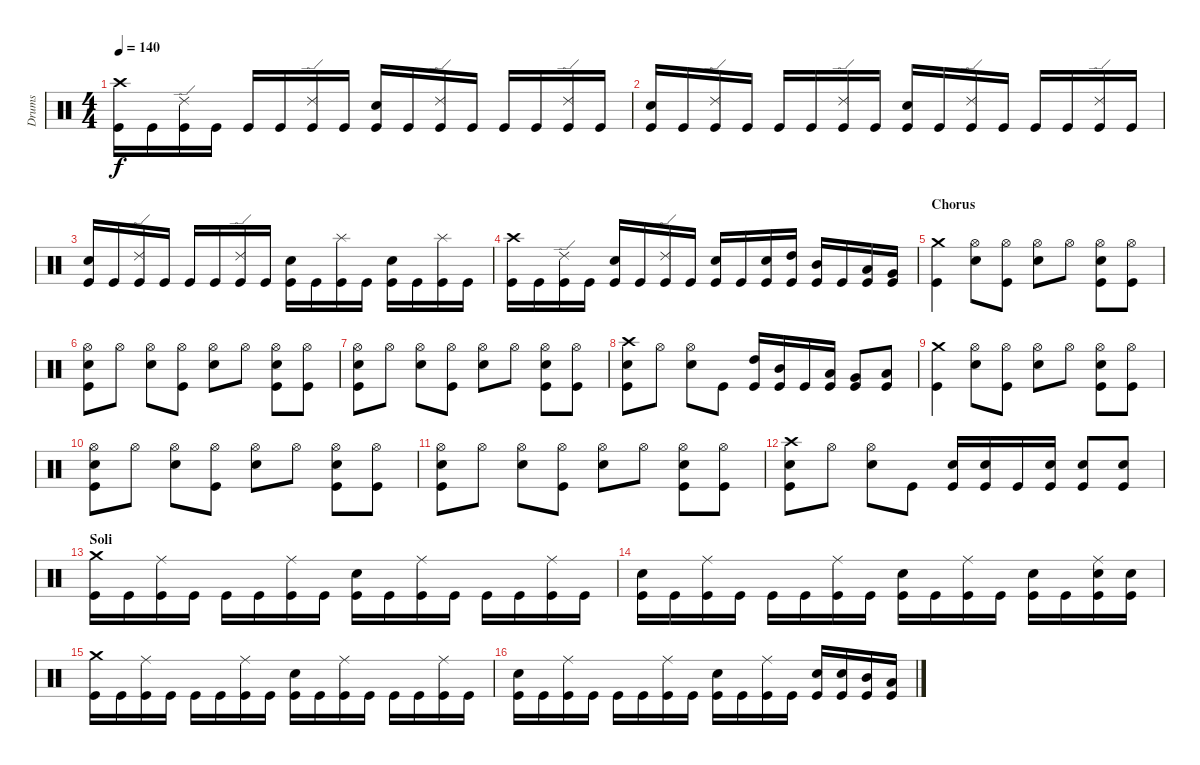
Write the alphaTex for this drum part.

\track ("Drums" "Drums") {instrument percussion}
\staff {score}
\articulation defaults
\ts (4 4)
\tempo 140
\clef neutral
\ks c
("Crash high (hit)" "Kick (hit)").16{dy f} "Kick (hit)".16 ("Ride (edge) 2" "Kick (hit)").16 "Kick (hit)".16 "Kick (hit)".16 "Kick (hit)".16 ("Ride (edge) 2" "Kick (hit)").16 "Kick (hit)".16 ("Snare (hit) 2" "Kick (hit)").16 "Kick (hit)".16 ("Ride (edge) 2" "Kick (hit)").16 "Kick (hit)".16 "Kick (hit)".16 "Kick (hit)".16 ("Ride (edge) 2" "Kick (hit)").16 "Kick (hit)".16 |
("Snare (hit) 2" "Kick (hit)").16 "Kick (hit)".16 ("Ride (edge) 2" "Kick (hit)").16 "Kick (hit)".16 "Kick (hit)".16 "Kick (hit)".16 ("Ride (edge) 2" "Kick (hit)").16 "Kick (hit)".16 ("Snare (hit) 2" "Kick (hit)").16 "Kick (hit)".16 ("Ride (edge) 2" "Kick (hit)").16 "Kick (hit)".16 "Kick (hit)".16 "Kick (hit)".16 ("Ride (edge) 2" "Kick (hit)").16 "Kick (hit)".16 |
("Snare (hit) 2" "Kick (hit)").16 "Kick (hit)".16 ("Ride (edge) 2" "Kick (hit)").16 "Kick (hit)".16 "Kick (hit)".16 "Kick (hit)".16 ("Ride (edge) 2" "Kick (hit)").16 "Kick (hit)".16 ("Snare (hit) 2" "Kick (hit)").16 "Kick (hit)".16 ("Splash (hit)" "Kick (hit)").16 "Kick (hit)".16 ("Snare (hit) 2" "Kick (hit)").16 "Kick (hit)".16 ("Splash (hit)" "Kick (hit)").16 "Kick (hit)".16 |
("Crash high (hit)" "Kick (hit)").16 "Kick (hit)".16 ("Ride (edge) 2" "Kick (hit)").16 "Kick (hit)".16 ("Snare (hit) 2" "Kick (hit)").16 "Kick (hit)".16 ("Ride (edge) 2" "Kick (hit)").16 "Kick (hit)".16 ("Snare (hit) 2" "Kick (hit)").16 "Kick (hit)".16 ("Snare (hit) 2" "Kick (hit)").16 ("High Tom (hit)" "Kick (hit)").16 ("Mid Tom (hit)" "Kick (hit)").16 "Kick (hit)".16 ("Low Tom (hit)" "Kick (hit)").16 ("Very Low Tom (hit)" "Kick (hit)").16 |
\section ("" "Chorus")
("Crash medium (hit)" "Kick (hit)").4 ("Hi-Hat (open)" "Electric Snare (hit)").8 ("Hi-Hat (open)" "Kick (hit)").8 ("Hi-Hat (open)" "Electric Snare (hit)").8 "Hi-Hat (open)".8 ("Hi-Hat (open)" "Electric Snare (hit)" "Kick (hit)").8 ("Hi-Hat (open)" "Kick (hit)").8 |
("Hi-Hat (open)" "Electric Snare (hit)" "Kick (hit)").8 "Hi-Hat (open)".8 ("Hi-Hat (open)" "Electric Snare (hit)").8 ("Hi-Hat (open)" "Kick (hit)").8 ("Hi-Hat (open)" "Electric Snare (hit)").8 "Hi-Hat (open)".8 ("Hi-Hat (open)" "Electric Snare (hit)" "Kick (hit)").8 ("Hi-Hat (open)" "Kick (hit)").8 |
("Hi-Hat (open)" "Electric Snare (hit)" "Kick (hit)").8 "Hi-Hat (open)".8 ("Hi-Hat (open)" "Electric Snare (hit)").8 ("Hi-Hat (open)" "Kick (hit)").8 ("Hi-Hat (open)" "Electric Snare (hit)").8 "Hi-Hat (open)".8 ("Hi-Hat (open)" "Electric Snare (hit)" "Kick (hit)").8 ("Hi-Hat (open)" "Kick (hit)").8 |
("Crash high (hit)" "Electric Snare (hit)" "Kick (hit)").8 "Hi-Hat (open)".8 ("Hi-Hat (open)" "Electric Snare (hit)").8 "Kick (hit)".8 ("High Tom (hit)" "Kick (hit)").16 ("Mid Tom (hit)" "Kick (hit)").16 "Kick (hit)".16 ("Low Tom (hit)" "Kick (hit)").16 ("Very Low Tom (hit)" "Kick (hit)").8 ("Low Floor Tom (hit)" "Kick (hit)").8 |
("Crash medium (hit)" "Kick (hit)").4 ("Hi-Hat (open)" "Electric Snare (hit)").8 ("Hi-Hat (open)" "Kick (hit)").8 ("Hi-Hat (open)" "Electric Snare (hit)").8 "Hi-Hat (open)".8 ("Hi-Hat (open)" "Electric Snare (hit)" "Kick (hit)").8 ("Hi-Hat (open)" "Kick (hit)").8 |
("Hi-Hat (open)" "Electric Snare (hit)" "Kick (hit)").8 "Hi-Hat (open)".8 ("Hi-Hat (open)" "Electric Snare (hit)").8 ("Hi-Hat (open)" "Kick (hit)").8 ("Hi-Hat (open)" "Electric Snare (hit)").8 "Hi-Hat (open)".8 ("Hi-Hat (open)" "Electric Snare (hit)" "Kick (hit)").8 ("Hi-Hat (open)" "Kick (hit)").8 |
("Hi-Hat (open)" "Electric Snare (hit)" "Kick (hit)").8 "Hi-Hat (open)".8 ("Hi-Hat (open)" "Electric Snare (hit)").8 ("Hi-Hat (open)" "Kick (hit)").8 ("Hi-Hat (open)" "Electric Snare (hit)").8 "Hi-Hat (open)".8 ("Hi-Hat (open)" "Electric Snare (hit)" "Kick (hit)").8 ("Hi-Hat (open)" "Kick (hit)").8 |
("Crash high (hit)" "Electric Snare (hit)" "Kick (hit)").8 "Hi-Hat (open)".8 ("Hi-Hat (open)" "Electric Snare (hit)").8 "Kick (hit)".8 ("Electric Snare (hit)" "Kick (hit)").16 ("Electric Snare (hit)" "Kick (hit)").16 "Kick (hit)".16 ("Electric Snare (hit)" "Kick (hit)").16 ("Electric Snare (hit)" "Kick (hit)").8 ("Electric Snare (hit)" "Kick (hit)").8 |
\section ("" "Soli")
("Crash medium (hit)" "Kick (hit)").16 "Kick (hit)".16 ("Ride (middle)" "Kick (hit)").16 "Kick (hit)".16 "Kick (hit)".16 "Kick (hit)".16 ("Ride (middle)" "Kick (hit)").16 "Kick (hit)".16 ("Snare (hit) 2" "Kick (hit)").16 "Kick (hit)".16 ("Ride (middle)" "Kick (hit)").16 "Kick (hit)".16 "Kick (hit)".16 "Kick (hit)".16 ("Ride (middle)" "Kick (hit)").16 "Kick (hit)".16 |
("Snare (hit) 2" "Kick (hit)").16 "Kick (hit)".16 ("Ride (middle)" "Kick (hit)").16 "Kick (hit)".16 "Kick (hit)".16 "Kick (hit)".16 ("Ride (middle)" "Kick (hit)").16 "Kick (hit)".16 ("Snare (hit) 2" "Kick (hit)").16 "Kick (hit)".16 ("Ride (middle)" "Kick (hit)").16 "Kick (hit)".16 ("Snare (hit) 2" "Kick (hit)").16 "Kick (hit)".16 ("Ride (middle)" "Snare (hit) 2" "Kick (hit)").16 ("Snare (hit) 2" "Kick (hit)").16 |
("Crash medium (hit)" "Kick (hit)").16 "Kick (hit)".16 ("Ride (middle)" "Kick (hit)").16 "Kick (hit)".16 "Kick (hit)".16 "Kick (hit)".16 ("Ride (middle)" "Kick (hit)").16 "Kick (hit)".16 ("Snare (hit) 2" "Kick (hit)").16 "Kick (hit)".16 ("Ride (middle)" "Kick (hit)").16 "Kick (hit)".16 "Kick (hit)".16 "Kick (hit)".16 ("Ride (middle)" "Kick (hit)").16 "Kick (hit)".16 |
("Snare (hit) 2" "Kick (hit)").16 "Kick (hit)".16 ("Ride (middle)" "Kick (hit)").16 "Kick (hit)".16 "Kick (hit)".16 "Kick (hit)".16 ("Ride (middle)" "Kick (hit)").16 "Kick (hit)".16 ("Snare (hit) 2" "Kick (hit)").16 "Kick (hit)".16 ("Ride (middle)" "Kick (hit)").16 "Kick (hit)".16 ("Snare (hit) 2" "Kick (hit)").16 ("Snare (hit) 2" "Kick (hit)").16 ("Mid Tom (hit)" "Kick (hit)").16 ("Low Tom (hit)" "Kick (hit)").16
